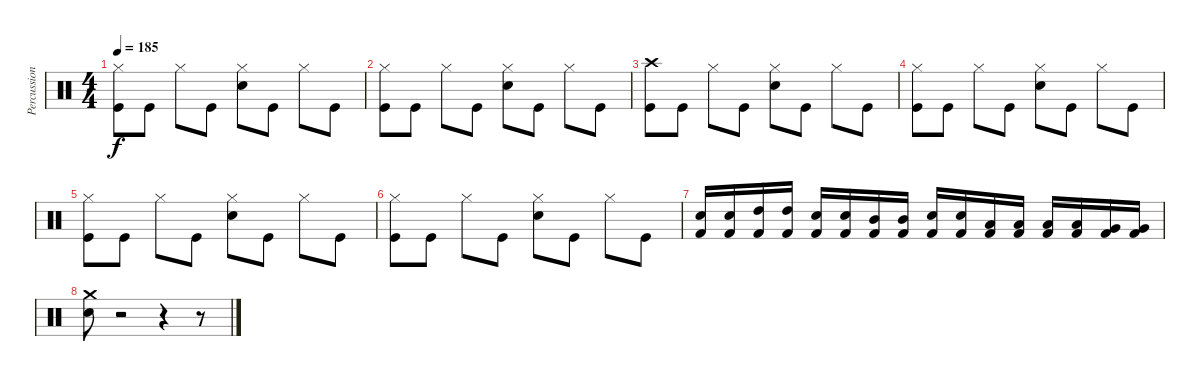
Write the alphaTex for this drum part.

\track ("Percussion" "Percussion") {instrument percussion}
\staff {score}
\articulation defaults
\ts (4 4)
\tempo 185
\clef neutral
\ks c
("Hi-Hat (closed)" "Kick (hit)").8{dy f} "Kick (hit)".8 "Hi-Hat (closed)".8 "Kick (hit)".8 ("Hi-Hat (closed)" "Snare (hit) 2").8 "Kick (hit)".8 "Hi-Hat (closed)".8 "Kick (hit)".8 |
("Hi-Hat (closed)" "Kick (hit)").8 "Kick (hit)".8 "Hi-Hat (closed)".8 "Kick (hit)".8 ("Hi-Hat (closed)" "Snare (hit) 2").8 "Kick (hit)".8 "Hi-Hat (closed)".8 "Kick (hit)".8 |
("Crash high (hit)" "Kick (hit)").8 "Kick (hit)".8 "Hi-Hat (closed)".8 "Kick (hit)".8 ("Hi-Hat (closed)" "Snare (hit) 2").8 "Kick (hit)".8 "Hi-Hat (closed)".8 "Kick (hit)".8 |
("Hi-Hat (closed)" "Kick (hit)").8 "Kick (hit)".8 "Hi-Hat (closed)".8 "Kick (hit)".8 ("Hi-Hat (closed)" "Snare (hit) 2").8 "Kick (hit)".8 "Hi-Hat (closed)".8 "Kick (hit)".8 |
("Hi-Hat (closed)" "Kick (hit)").8 "Kick (hit)".8 "Hi-Hat (closed)".8 "Kick (hit)".8 ("Hi-Hat (closed)" "Snare (hit) 2").8 "Kick (hit)".8 "Hi-Hat (closed)".8 "Kick (hit)".8 |
("Hi-Hat (closed)" "Kick (hit)").8 "Kick (hit)".8 "Hi-Hat (closed)".8 "Kick (hit)".8 ("Hi-Hat (closed)" "Snare (hit) 2").8 "Kick (hit)".8 "Hi-Hat (closed)".8 "Kick (hit)".8 |
("Snare (hit) 2" "Kick (hit) 2").16 ("Snare (hit) 2" "Kick (hit) 2").16 ("High Tom (hit)" "Kick (hit) 2").16 ("High Tom (hit)" "Kick (hit) 2").16 ("Snare (hit) 2" "Kick (hit) 2").16 ("Snare (hit) 2" "Kick (hit) 2").16 ("Mid Tom (hit)" "Kick (hit) 2").16 ("Mid Tom (hit)" "Kick (hit) 2").16 ("Snare (hit) 2" "Kick (hit) 2").16 ("Snare (hit) 2" "Kick (hit) 2").16 ("Low Tom (hit)" "Kick (hit) 2").16 ("Low Tom (hit)" "Kick (hit) 2").16 ("Low Tom (hit)" "Kick (hit) 2").16 ("Low Tom (hit)" "Kick (hit) 2").16 ("Very Low Tom (hit)" "Kick (hit) 2").16 ("Very Low Tom (hit)" "Kick (hit) 2").16 |
("Crash medium (hit)" "Snare (hit) 2").8 r.2 r.4 r.8
